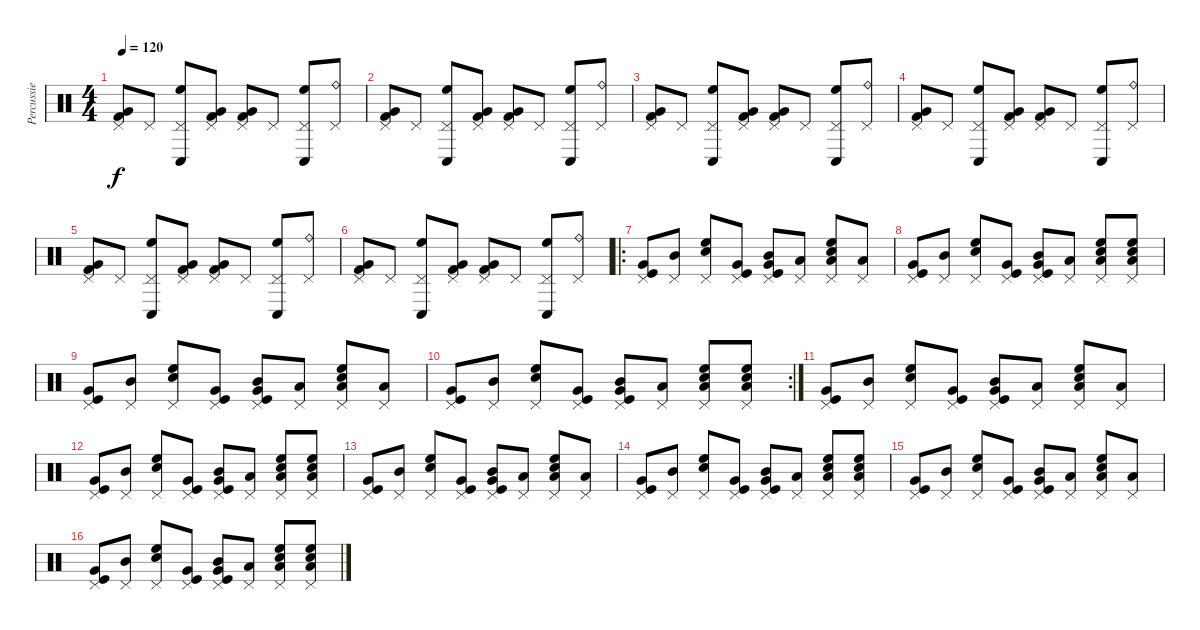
\track ("Percussie" "Percussie") {instrument percussion}
\staff {score}
\articulation defaults
\ts (4 4)
\tempo 120
\clef neutral
\ks c
("Pedal Hi-Hat (hit)" "Very Low Tom (hit)" "Kick (hit) 2").8{dy f} "Pedal Hi-Hat (hit)".8 ("Pedal Hi-Hat (hit)" "High Floor Tom (hit)" "Conga low (hit)").8 ("Pedal Hi-Hat (hit)" "Very Low Tom (hit)" "Kick (hit) 2").8 ("Pedal Hi-Hat (hit)" "Very Low Tom (hit)" "Kick (hit) 2").8 "Pedal Hi-Hat (hit)".8 ("Pedal Hi-Hat (hit)" "High Floor Tom (hit)" "Conga low (hit)").8 ("Ride (bell)" "Pedal Hi-Hat (hit)").8 |
("Pedal Hi-Hat (hit)" "Very Low Tom (hit)" "Kick (hit) 2").8 "Pedal Hi-Hat (hit)".8 ("Pedal Hi-Hat (hit)" "High Floor Tom (hit)" "Conga low (hit)").8 ("Pedal Hi-Hat (hit)" "Very Low Tom (hit)" "Kick (hit) 2").8 ("Pedal Hi-Hat (hit)" "Very Low Tom (hit)" "Kick (hit) 2").8 "Pedal Hi-Hat (hit)".8 ("Pedal Hi-Hat (hit)" "High Floor Tom (hit)" "Conga low (hit)").8 ("Ride (bell)" "Pedal Hi-Hat (hit)").8 |
("Pedal Hi-Hat (hit)" "Very Low Tom (hit)" "Kick (hit) 2").8 "Pedal Hi-Hat (hit)".8 ("Pedal Hi-Hat (hit)" "High Floor Tom (hit)" "Conga low (hit)").8 ("Pedal Hi-Hat (hit)" "Very Low Tom (hit)" "Kick (hit) 2").8 ("Pedal Hi-Hat (hit)" "Very Low Tom (hit)" "Kick (hit) 2").8 "Pedal Hi-Hat (hit)".8 ("Pedal Hi-Hat (hit)" "High Floor Tom (hit)" "Conga low (hit)").8 ("Ride (bell)" "Pedal Hi-Hat (hit)").8 |
("Pedal Hi-Hat (hit)" "Very Low Tom (hit)" "Kick (hit) 2").8 "Pedal Hi-Hat (hit)".8 ("Pedal Hi-Hat (hit)" "High Floor Tom (hit)" "Conga low (hit)").8 ("Pedal Hi-Hat (hit)" "Very Low Tom (hit)" "Kick (hit) 2").8 ("Pedal Hi-Hat (hit)" "Very Low Tom (hit)" "Kick (hit) 2").8 "Pedal Hi-Hat (hit)".8 ("Pedal Hi-Hat (hit)" "High Floor Tom (hit)" "Conga low (hit)").8 ("Ride (bell)" "Pedal Hi-Hat (hit)").8 |
("Pedal Hi-Hat (hit)" "Very Low Tom (hit)" "Kick (hit) 2").8 "Pedal Hi-Hat (hit)".8 ("Pedal Hi-Hat (hit)" "High Floor Tom (hit)" "Conga low (hit)").8 ("Pedal Hi-Hat (hit)" "Very Low Tom (hit)" "Kick (hit) 2").8 ("Pedal Hi-Hat (hit)" "Very Low Tom (hit)" "Kick (hit) 2").8 "Pedal Hi-Hat (hit)".8 ("Pedal Hi-Hat (hit)" "High Floor Tom (hit)" "Conga low (hit)").8 ("Ride (bell)" "Pedal Hi-Hat (hit)").8 |
("Pedal Hi-Hat (hit)" "Very Low Tom (hit)" "Kick (hit) 2").8 "Pedal Hi-Hat (hit)".8 ("Pedal Hi-Hat (hit)" "High Floor Tom (hit)" "Conga low (hit)").8 ("Pedal Hi-Hat (hit)" "Very Low Tom (hit)" "Kick (hit) 2").8 ("Pedal Hi-Hat (hit)" "Very Low Tom (hit)" "Kick (hit) 2").8 "Pedal Hi-Hat (hit)".8 ("Pedal Hi-Hat (hit)" "High Floor Tom (hit)" "Conga low (hit)").8 ("Ride (bell)" "Pedal Hi-Hat (hit)").8 |
\ro
("Pedal Hi-Hat (hit)" "Very Low Tom (hit)" "Kick (hit)").8 ("Pedal Hi-Hat (hit)" "Mid Tom (hit)").8 ("Pedal Hi-Hat (hit)" "High Floor Tom (hit)" "Snare (hit) 2").8 ("Pedal Hi-Hat (hit)" "Very Low Tom (hit)" "Kick (hit)").8 ("Pedal Hi-Hat (hit)" "Mid Tom (hit)" "Very Low Tom (hit)" "Kick (hit)").8 ("Pedal Hi-Hat (hit)" "Low Tom (hit)").8 ("Pedal Hi-Hat (hit)" "High Floor Tom (hit)" "Snare (hit) 2" "Low Tom (hit)").8 ("Pedal Hi-Hat (hit)" "Low Tom (hit)").8 |
("Pedal Hi-Hat (hit)" "Very Low Tom (hit)" "Kick (hit)").8 ("Pedal Hi-Hat (hit)" "Mid Tom (hit)").8 ("Pedal Hi-Hat (hit)" "High Floor Tom (hit)" "Snare (hit) 2").8 ("Pedal Hi-Hat (hit)" "Very Low Tom (hit)" "Kick (hit)").8 ("Pedal Hi-Hat (hit)" "Mid Tom (hit)" "Very Low Tom (hit)" "Kick (hit)").8 ("Pedal Hi-Hat (hit)" "Low Tom (hit)").8 ("Pedal Hi-Hat (hit)" "High Floor Tom (hit)" "Snare (hit) 2" "Low Tom (hit)").8 ("Pedal Hi-Hat (hit)" "High Floor Tom (hit)" "Snare (hit) 2" "Low Tom (hit)").8 |
("Pedal Hi-Hat (hit)" "Very Low Tom (hit)" "Kick (hit)").8 ("Pedal Hi-Hat (hit)" "Mid Tom (hit)").8 ("Pedal Hi-Hat (hit)" "High Floor Tom (hit)" "Snare (hit) 2").8 ("Pedal Hi-Hat (hit)" "Very Low Tom (hit)" "Kick (hit)").8 ("Pedal Hi-Hat (hit)" "Mid Tom (hit)" "Very Low Tom (hit)" "Kick (hit)").8 ("Pedal Hi-Hat (hit)" "Low Tom (hit)").8 ("Pedal Hi-Hat (hit)" "High Floor Tom (hit)" "Snare (hit) 2" "Low Tom (hit)").8 ("Pedal Hi-Hat (hit)" "Low Tom (hit)").8 |
\rc 2
("Pedal Hi-Hat (hit)" "Very Low Tom (hit)" "Kick (hit)").8 ("Pedal Hi-Hat (hit)" "Mid Tom (hit)").8 ("Pedal Hi-Hat (hit)" "High Floor Tom (hit)" "Snare (hit) 2").8 ("Pedal Hi-Hat (hit)" "Very Low Tom (hit)" "Kick (hit)").8 ("Pedal Hi-Hat (hit)" "Mid Tom (hit)" "Very Low Tom (hit)" "Kick (hit)").8 ("Pedal Hi-Hat (hit)" "Low Tom (hit)").8 ("Pedal Hi-Hat (hit)" "High Floor Tom (hit)" "Snare (hit) 2" "Low Tom (hit)").8 ("Pedal Hi-Hat (hit)" "High Floor Tom (hit)" "Snare (hit) 2" "Low Tom (hit)").8 |
("Pedal Hi-Hat (hit)" "Very Low Tom (hit)" "Kick (hit)").8 ("Pedal Hi-Hat (hit)" "Mid Tom (hit)").8 ("Pedal Hi-Hat (hit)" "High Floor Tom (hit)" "Snare (hit) 2").8 ("Pedal Hi-Hat (hit)" "Very Low Tom (hit)" "Kick (hit)").8 ("Pedal Hi-Hat (hit)" "Mid Tom (hit)" "Very Low Tom (hit)" "Kick (hit)").8 ("Pedal Hi-Hat (hit)" "Low Tom (hit)").8 ("Pedal Hi-Hat (hit)" "High Floor Tom (hit)" "Snare (hit) 2" "Low Tom (hit)").8 ("Pedal Hi-Hat (hit)" "Low Tom (hit)").8 |
("Pedal Hi-Hat (hit)" "Very Low Tom (hit)" "Kick (hit)").8 ("Pedal Hi-Hat (hit)" "Mid Tom (hit)").8 ("Pedal Hi-Hat (hit)" "High Floor Tom (hit)" "Snare (hit) 2").8 ("Pedal Hi-Hat (hit)" "Very Low Tom (hit)" "Kick (hit)").8 ("Pedal Hi-Hat (hit)" "Mid Tom (hit)" "Very Low Tom (hit)" "Kick (hit)").8 ("Pedal Hi-Hat (hit)" "Low Tom (hit)").8 ("Pedal Hi-Hat (hit)" "High Floor Tom (hit)" "Snare (hit) 2" "Low Tom (hit)").8 ("Pedal Hi-Hat (hit)" "High Floor Tom (hit)" "Snare (hit) 2" "Low Tom (hit)").8 |
("Pedal Hi-Hat (hit)" "Very Low Tom (hit)" "Kick (hit)").8 ("Pedal Hi-Hat (hit)" "Mid Tom (hit)").8 ("Pedal Hi-Hat (hit)" "High Floor Tom (hit)" "Snare (hit) 2").8 ("Pedal Hi-Hat (hit)" "Very Low Tom (hit)" "Kick (hit)").8 ("Pedal Hi-Hat (hit)" "Mid Tom (hit)" "Very Low Tom (hit)" "Kick (hit)").8 ("Pedal Hi-Hat (hit)" "Low Tom (hit)").8 ("Pedal Hi-Hat (hit)" "High Floor Tom (hit)" "Snare (hit) 2" "Low Tom (hit)").8 ("Pedal Hi-Hat (hit)" "Low Tom (hit)").8 |
("Pedal Hi-Hat (hit)" "Very Low Tom (hit)" "Kick (hit)").8 ("Pedal Hi-Hat (hit)" "Mid Tom (hit)").8 ("Pedal Hi-Hat (hit)" "High Floor Tom (hit)" "Snare (hit) 2").8 ("Pedal Hi-Hat (hit)" "Very Low Tom (hit)" "Kick (hit)").8 ("Pedal Hi-Hat (hit)" "Mid Tom (hit)" "Very Low Tom (hit)" "Kick (hit)").8 ("Pedal Hi-Hat (hit)" "Low Tom (hit)").8 ("Pedal Hi-Hat (hit)" "High Floor Tom (hit)" "Snare (hit) 2" "Low Tom (hit)").8 ("Pedal Hi-Hat (hit)" "High Floor Tom (hit)" "Snare (hit) 2" "Low Tom (hit)").8 |
("Pedal Hi-Hat (hit)" "Very Low Tom (hit)" "Kick (hit)").8 ("Pedal Hi-Hat (hit)" "Mid Tom (hit)").8 ("Pedal Hi-Hat (hit)" "High Floor Tom (hit)" "Snare (hit) 2").8 ("Pedal Hi-Hat (hit)" "Very Low Tom (hit)" "Kick (hit)").8 ("Pedal Hi-Hat (hit)" "Mid Tom (hit)" "Very Low Tom (hit)" "Kick (hit)").8 ("Pedal Hi-Hat (hit)" "Low Tom (hit)").8 ("Pedal Hi-Hat (hit)" "High Floor Tom (hit)" "Snare (hit) 2" "Low Tom (hit)").8 ("Pedal Hi-Hat (hit)" "Low Tom (hit)").8 |
("Pedal Hi-Hat (hit)" "Very Low Tom (hit)" "Kick (hit)").8 ("Pedal Hi-Hat (hit)" "Mid Tom (hit)").8 ("Pedal Hi-Hat (hit)" "High Floor Tom (hit)" "Snare (hit) 2").8 ("Pedal Hi-Hat (hit)" "Very Low Tom (hit)" "Kick (hit)").8 ("Pedal Hi-Hat (hit)" "Mid Tom (hit)" "Very Low Tom (hit)" "Kick (hit)").8 ("Pedal Hi-Hat (hit)" "Low Tom (hit)").8 ("Pedal Hi-Hat (hit)" "High Floor Tom (hit)" "Snare (hit) 2" "Low Tom (hit)").8 ("Pedal Hi-Hat (hit)" "High Floor Tom (hit)" "Snare (hit) 2" "Low Tom (hit)").8
